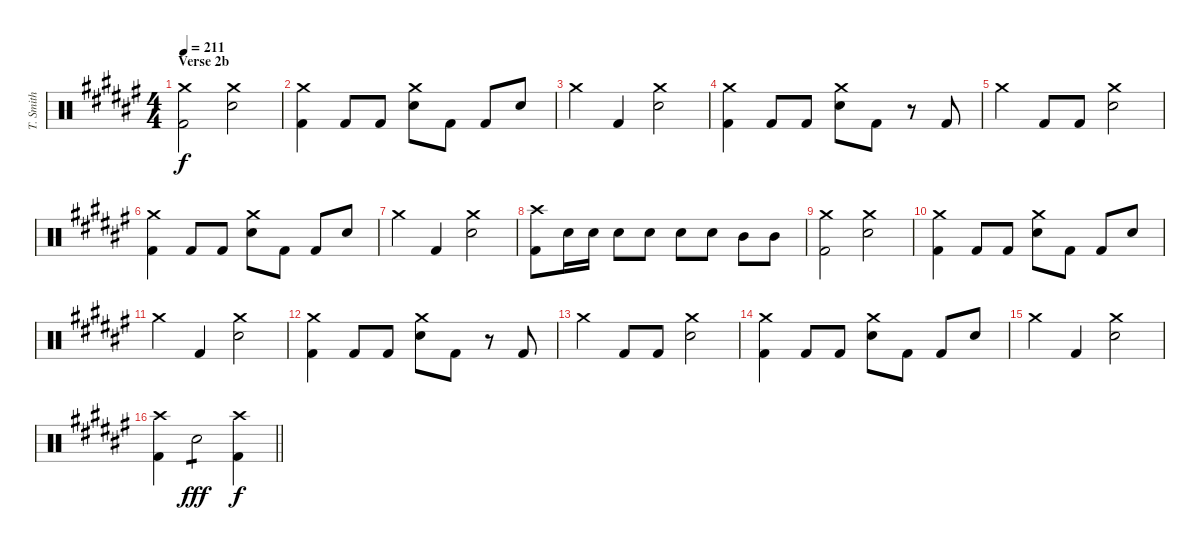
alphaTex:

\track ("T. Smith" "T. Smith") {instrument percussion}
\staff {score}
\articulation defaults
\ts (4 4)
\section ("" "Verse 2b")
\tempo 211
\clef neutral
\ks d#minor
("Crash medium (hit)" "Kick (hit) 2").2{dy f} ("Crash medium (hit)" "Electric Snare (hit)").2 |
("Crash medium (hit)" "Kick (hit) 2").4 "Kick (hit) 2".8 "Kick (hit) 2".8 ("Crash medium (hit)" "Electric Snare (hit)").8 "Kick (hit) 2".8 "Kick (hit) 2".8 "Electric Snare (hit)".8 |
"Crash medium (hit)".4 "Kick (hit) 2".4 ("Crash medium (hit)" "Electric Snare (hit)").2 |
("Crash medium (hit)" "Kick (hit) 2").4 "Kick (hit) 2".8 "Kick (hit) 2".8 ("Crash medium (hit)" "Electric Snare (hit)").8 "Kick (hit) 2".8 r.8 "Kick (hit) 2".8 |
"Crash medium (hit)".4 "Kick (hit) 2".8 "Kick (hit) 2".8 ("Crash medium (hit)" "Electric Snare (hit)").2 |
("Crash medium (hit)" "Kick (hit) 2").4 "Kick (hit) 2".8 "Kick (hit) 2".8 ("Crash medium (hit)" "Electric Snare (hit)").8 "Kick (hit) 2".8 "Kick (hit) 2".8 "Electric Snare (hit)".8 |
"Crash medium (hit)".4 "Kick (hit) 2".4 ("Crash medium (hit)" "Electric Snare (hit)").2 |
("Crash high (hit)" "Kick (hit) 2").8 "Electric Snare (hit)".16 "Electric Snare (hit)".16 "Electric Snare (hit)".8 "Electric Snare (hit)".8 "Electric Snare (hit)".8 "Electric Snare (hit)".8 "Mid Tom (hit)".8 "Mid Tom (hit)".8 |
("Crash medium (hit)" "Kick (hit) 2").2 ("Crash medium (hit)" "Electric Snare (hit)").2 |
("Crash medium (hit)" "Kick (hit) 2").4 "Kick (hit) 2".8 "Kick (hit) 2".8 ("Crash medium (hit)" "Electric Snare (hit)").8 "Kick (hit) 2".8 "Kick (hit) 2".8 "Electric Snare (hit)".8 |
"Crash medium (hit)".4 "Kick (hit) 2".4 ("Crash medium (hit)" "Electric Snare (hit)").2 |
("Crash medium (hit)" "Kick (hit) 2").4 "Kick (hit) 2".8 "Kick (hit) 2".8 ("Crash medium (hit)" "Electric Snare (hit)").8 "Kick (hit) 2".8 r.8 "Kick (hit) 2".8 |
"Crash medium (hit)".4 "Kick (hit) 2".8 "Kick (hit) 2".8 ("Crash medium (hit)" "Electric Snare (hit)").2 |
("Crash medium (hit)" "Kick (hit) 2").4 "Kick (hit) 2".8 "Kick (hit) 2".8 ("Crash medium (hit)" "Electric Snare (hit)").8 "Kick (hit) 2".8 "Kick (hit) 2".8 "Electric Snare (hit)".8 |
"Crash medium (hit)".4 "Kick (hit) 2".4 ("Crash medium (hit)" "Electric Snare (hit)").2 |
\barLineRight lightlight
("Crash high (hit)" "Kick (hit) 2").4 "Electric Snare (hit)".2{tp 1 dy fff} ("Crash high (hit)" "Kick (hit) 2").4{dy f}
